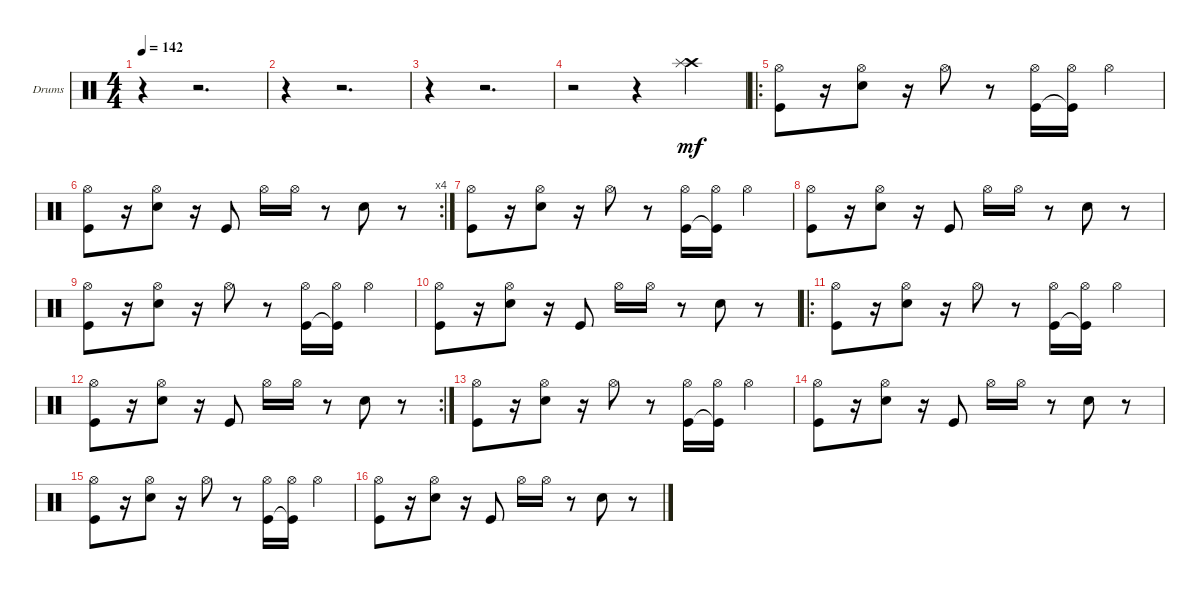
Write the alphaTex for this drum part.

\bracketExtendMode groupsimilarinstruments
\firstSystemTrackNameOrientation horizontal
\otherSystemsTrackNameOrientation horizontal
\track ("Drumkit" "Drums") {instrument percussion}
\staff {score}
\articulation defaults
\ts (4 4)
\beaming (8 2 2 2 2)
\tempo 142
\clef neutral
\ks c
r.4{dy mf} r.2{d} |
r.4 r.2{d} |
r.4 r.2{d} |
r.2 r.4 ("Crash high (hit)" "Splash (hit)").4 |
\ro
("Kick (hit)" "Hi-Hat (open)").8 r.16 ("Snare (hit) 2" "Hi-Hat (open)").8 r.16 "Hi-Hat (open)".8 r.8 ("Kick (hit)" "Hi-Hat (open)").16 ("Kick (hit)"{t} "Hi-Hat (open)").16 "Hi-Hat (open)".4 |
\rc 4
("Kick (hit)" "Hi-Hat (open)").8 r.16 ("Snare (hit) 2" "Hi-Hat (open)").8 r.16 "Kick (hit)".8 "Hi-Hat (open)".16 "Hi-Hat (open)".16 r.8 "Snare (hit) 2".8 r.8 |
("Kick (hit)" "Hi-Hat (open)").8 r.16 ("Snare (hit) 2" "Hi-Hat (open)").8 r.16 "Hi-Hat (open)".8 r.8 ("Kick (hit)" "Hi-Hat (open)").16 ("Kick (hit)"{t} "Hi-Hat (open)").16 "Hi-Hat (open)".4 |
("Kick (hit)" "Hi-Hat (open)").8 r.16 ("Snare (hit) 2" "Hi-Hat (open)").8 r.16 "Kick (hit)".8 "Hi-Hat (open)".16 "Hi-Hat (open)".16 r.8 "Snare (hit) 2".8 r.8 |
("Kick (hit)" "Hi-Hat (open)").8 r.16 ("Snare (hit) 2" "Hi-Hat (open)").8 r.16 "Hi-Hat (open)".8 r.8 ("Kick (hit)" "Hi-Hat (open)").16 ("Kick (hit)"{t} "Hi-Hat (open)").16 "Hi-Hat (open)".4 |
("Kick (hit)" "Hi-Hat (open)").8 r.16 ("Snare (hit) 2" "Hi-Hat (open)").8 r.16 "Kick (hit)".8 "Hi-Hat (open)".16 "Hi-Hat (open)".16 r.8 "Snare (hit) 2".8 r.8 |
\ro
("Kick (hit)" "Hi-Hat (open)").8 r.16 ("Snare (hit) 2" "Hi-Hat (open)").8 r.16 "Hi-Hat (open)".8 r.8 ("Kick (hit)" "Hi-Hat (open)").16 ("Kick (hit)"{t} "Hi-Hat (open)").16 "Hi-Hat (open)".4 |
\rc 2
("Kick (hit)" "Hi-Hat (open)").8 r.16 ("Snare (hit) 2" "Hi-Hat (open)").8 r.16 "Kick (hit)".8 "Hi-Hat (open)".16 "Hi-Hat (open)".16 r.8 "Snare (hit) 2".8 r.8 |
("Kick (hit)" "Hi-Hat (open)").8 r.16 ("Snare (hit) 2" "Hi-Hat (open)").8 r.16 "Hi-Hat (open)".8 r.8 ("Kick (hit)" "Hi-Hat (open)").16 ("Kick (hit)"{t} "Hi-Hat (open)").16 "Hi-Hat (open)".4 |
("Kick (hit)" "Hi-Hat (open)").8 r.16 ("Snare (hit) 2" "Hi-Hat (open)").8 r.16 "Kick (hit)".8 "Hi-Hat (open)".16 "Hi-Hat (open)".16 r.8 "Snare (hit) 2".8 r.8 |
("Kick (hit)" "Hi-Hat (open)").8 r.16 ("Snare (hit) 2" "Hi-Hat (open)").8 r.16 "Hi-Hat (open)".8 r.8 ("Kick (hit)" "Hi-Hat (open)").16 ("Kick (hit)"{t} "Hi-Hat (open)").16 "Hi-Hat (open)".4 |
("Kick (hit)" "Hi-Hat (open)").8 r.16 ("Snare (hit) 2" "Hi-Hat (open)").8 r.16 "Kick (hit)".8 "Hi-Hat (open)".16 "Hi-Hat (open)".16 r.8 "Snare (hit) 2".8 r.8
